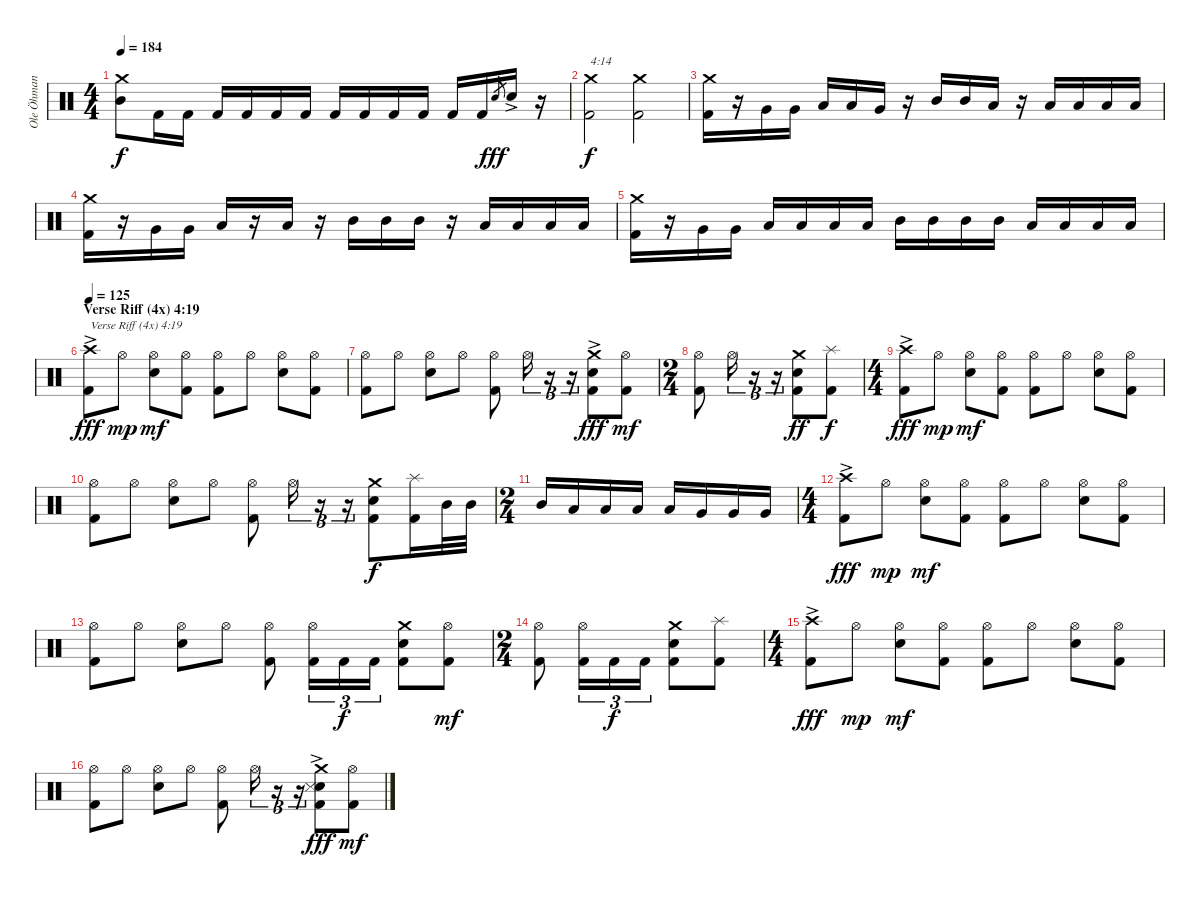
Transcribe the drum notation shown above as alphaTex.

\track ("Ole Öhman" "Ole Öhman") {instrument percussion}
\staff {score}
\articulation defaults
\ts (4 4)
\tempo 184
\clef neutral
\ks c
("Mid Tom (hit)" "Crash medium (hit)").8{dy f} "Kick (hit) 2".16 "Kick (hit) 2".16 "Kick (hit) 2".16 "Kick (hit) 2".16 "Kick (hit) 2".16 "Kick (hit) 2".16 "Kick (hit) 2".16 "Kick (hit) 2".16 "Kick (hit) 2".16 "Kick (hit) 2".16 "Kick (hit) 2".16 "Kick (hit) 2".16 "Electric Snare (hit)".8{gr dy fff} "Electric Snare (hit)"{ac}.16 r.16 |
("Kick (hit) 2" "Crash medium (hit)").2{txt "4:14" dy f} ("Kick (hit) 2" "Crash medium (hit)").2 |
("Kick (hit) 2" "Crash medium (hit)").16 r.16 "Very Low Tom (hit)".16 "Very Low Tom (hit)".16 "Low Tom (hit)".16 "Low Tom (hit)".16 "Very Low Tom (hit)".16 r.16 "Mid Tom (hit)".16 "Mid Tom (hit)".16 "Low Tom (hit)".16 r.16 "Low Tom (hit)".16 "Low Tom (hit)".16 "Low Tom (hit)".16 "Low Tom (hit)".16 |
("Kick (hit) 2" "Crash medium (hit)").16 r.16 "Very Low Tom (hit)".16 "Very Low Tom (hit)".16 "Low Tom (hit)".16 r.16 "Low Tom (hit)".16 r.16 "Mid Tom (hit)".16 "Mid Tom (hit)".16 "Mid Tom (hit)".16 r.16 "Low Tom (hit)".16 "Low Tom (hit)".16 "Low Tom (hit)".16 "Low Tom (hit)".16 |
("Kick (hit) 2" "Crash medium (hit)").16 r.16 "Very Low Tom (hit)".16 "Very Low Tom (hit)".16 "Low Tom (hit)".16 "Low Tom (hit)".16 "Low Tom (hit)".16 "Low Tom (hit)".16 "Mid Tom (hit)".16 "Mid Tom (hit)".16 "Mid Tom (hit)".16 "Mid Tom (hit)".16 "Low Tom (hit)".16 "Low Tom (hit)".16 "Low Tom (hit)".16 "Low Tom (hit)".16 |
\section ("" "Verse Riff (4x) 4:19")
\tempo 125
("Kick (hit) 2" "Crash high (hit)"{ac}).8{txt "Verse Riff (4x) 4:19" dy fff} "Hi-Hat (open)".8{dy mp} ("Electric Snare (hit)" "Hi-Hat (open)").8{dy mf} ("Kick (hit) 2" "Hi-Hat (open)").8 ("Kick (hit) 2" "Hi-Hat (open)").8 "Hi-Hat (open)".8 ("Electric Snare (hit)" "Hi-Hat (open)").8 ("Kick (hit) 2" "Hi-Hat (open)").8 |
("Kick (hit) 2" "Hi-Hat (open)").8 "Hi-Hat (open)".8 ("Electric Snare (hit)" "Hi-Hat (open)").8 "Hi-Hat (open)".8 ("Kick (hit) 2" "Hi-Hat (open)").8 "Hi-Hat (open)".16{tu (3 2)} r.16{tu (3 2)} r.16{tu (3 2)} ("Kick (hit) 2" "Electric Snare (hit)" "Crash medium (hit)"{ac}).8{dy fff} ("Kick (hit) 2" "Hi-Hat (open)").8{dy mf} |
\ts (2 4)
("Kick (hit) 2" "Hi-Hat (open)").8 "Hi-Hat (open)".16{tu (3 2)} r.16{tu (3 2)} r.16{tu (3 2)} ("Kick (hit) 2" "Electric Snare (hit)" "Crash medium (hit)").8{dy ff} ("Kick (hit) 2" "Splash (hit)").8{dy f} |
\ts (4 4)
("Kick (hit) 2" "Crash high (hit)"{ac}).8{dy fff} "Hi-Hat (open)".8{dy mp} ("Electric Snare (hit)" "Hi-Hat (open)").8{dy mf} ("Kick (hit) 2" "Hi-Hat (open)").8 ("Kick (hit) 2" "Hi-Hat (open)").8 "Hi-Hat (open)".8 ("Electric Snare (hit)" "Hi-Hat (open)").8 ("Kick (hit) 2" "Hi-Hat (open)").8 |
("Kick (hit) 2" "Hi-Hat (open)").8 "Hi-Hat (open)".8 ("Electric Snare (hit)" "Hi-Hat (open)").8 "Hi-Hat (open)".8 ("Kick (hit) 2" "Hi-Hat (open)").8 "Hi-Hat (open)".16{tu (3 2)} r.16{tu (3 2)} r.16{tu (3 2)} ("Kick (hit) 2" "Electric Snare (hit)" "Crash medium (hit)").8{dy f} ("Kick (hit) 2" "Splash (hit)").16 "Mid Tom (hit)".32 "Mid Tom (hit)".32 |
\ts (2 4)
"Mid Tom (hit)".16 "Low Tom (hit)".16 "Low Tom (hit)".16 "Low Tom (hit)".16 "Low Tom (hit)".16 "Very Low Tom (hit)".16 "Very Low Tom (hit)".16 "Very Low Tom (hit)".16 |
\ts (4 4)
("Kick (hit) 2" "Crash high (hit)"{ac}).8{dy fff} "Hi-Hat (open)".8{dy mp} ("Electric Snare (hit)" "Hi-Hat (open)").8{dy mf} ("Kick (hit) 2" "Hi-Hat (open)").8 ("Kick (hit) 2" "Hi-Hat (open)").8 "Hi-Hat (open)".8 ("Electric Snare (hit)" "Hi-Hat (open)").8 ("Kick (hit) 2" "Hi-Hat (open)").8 |
("Kick (hit) 2" "Hi-Hat (open)").8 "Hi-Hat (open)".8 ("Electric Snare (hit)" "Hi-Hat (open)").8 "Hi-Hat (open)".8 ("Kick (hit) 2" "Hi-Hat (open)").8 ("Kick (hit) 2" "Hi-Hat (open)").16{tu (3 2)} "Kick (hit) 2".16{tu (3 2) dy f} "Kick (hit) 2".16{tu (3 2)} ("Kick (hit) 2" "Electric Snare (hit)" "Crash medium (hit)").8 ("Kick (hit) 2" "Hi-Hat (open)").8{dy mf} |
\ts (2 4)
("Kick (hit) 2" "Hi-Hat (open)").8 ("Kick (hit) 2" "Hi-Hat (open)").16{tu (3 2)} "Kick (hit) 2".16{tu (3 2) dy f} "Kick (hit) 2".16{tu (3 2)} ("Kick (hit) 2" "Electric Snare (hit)" "Crash medium (hit)").8 ("Kick (hit) 2" "Splash (hit)").8 |
\ts (4 4)
("Kick (hit) 2" "Crash high (hit)"{ac}).8{dy fff} "Hi-Hat (open)".8{dy mp} ("Electric Snare (hit)" "Hi-Hat (open)").8{dy mf} ("Kick (hit) 2" "Hi-Hat (open)").8 ("Kick (hit) 2" "Hi-Hat (open)").8 "Hi-Hat (open)".8 ("Electric Snare (hit)" "Hi-Hat (open)").8 ("Kick (hit) 2" "Hi-Hat (open)").8 |
("Kick (hit) 2" "Hi-Hat (open)").8 "Hi-Hat (open)".8 ("Electric Snare (hit)" "Hi-Hat (open)").8 "Hi-Hat (open)".8 ("Kick (hit) 2" "Hi-Hat (open)").8 "Hi-Hat (open)".16{tu (3 2)} r.16{tu (3 2)} r.16{tu (3 2)} ("Kick (hit) 2" "Electric Snare (hit)"{ac} "Snare (side stick) 3" "Crash medium (hit)").8{dy fff} ("Kick (hit) 2" "Hi-Hat (open)").8{dy mf}
